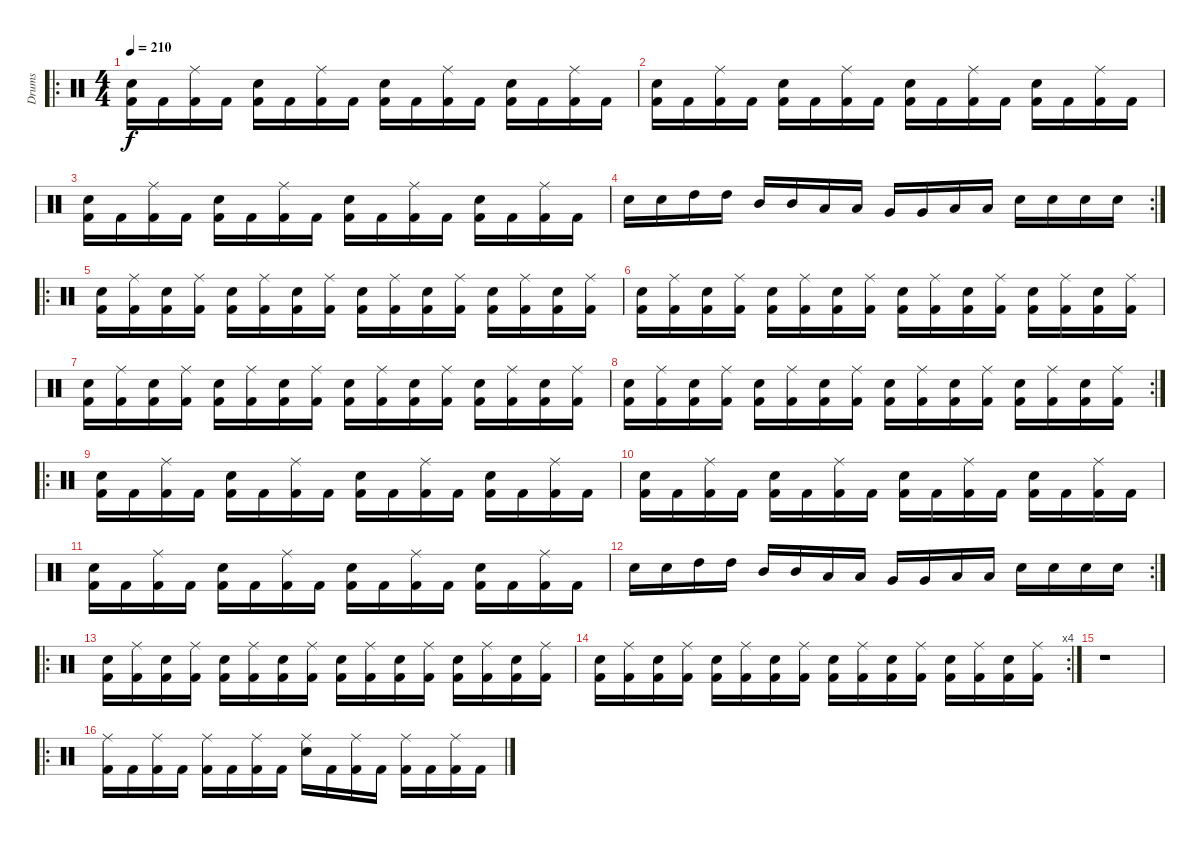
\track ("Drums" "Drums") {instrument percussion}
\staff {score}
\articulation defaults
\ro
\ts (4 4)
\tempo 210
\clef neutral
\ks c
("Electric Snare (hit)" "Kick (hit) 2").16{dy f} "Kick (hit) 2".16 ("Ride (middle)" "Kick (hit) 2").16 "Kick (hit) 2".16 ("Electric Snare (hit)" "Kick (hit) 2").16 "Kick (hit) 2".16 ("Ride (middle)" "Kick (hit) 2").16 "Kick (hit) 2".16 ("Electric Snare (hit)" "Kick (hit) 2").16 "Kick (hit) 2".16 ("Ride (middle)" "Kick (hit) 2").16 "Kick (hit) 2".16 ("Electric Snare (hit)" "Kick (hit) 2").16 "Kick (hit) 2".16 ("Ride (middle)" "Kick (hit) 2").16 "Kick (hit) 2".16 |
("Electric Snare (hit)" "Kick (hit) 2").16 "Kick (hit) 2".16 ("Ride (middle)" "Kick (hit) 2").16 "Kick (hit) 2".16 ("Electric Snare (hit)" "Kick (hit) 2").16 "Kick (hit) 2".16 ("Ride (middle)" "Kick (hit) 2").16 "Kick (hit) 2".16 ("Electric Snare (hit)" "Kick (hit) 2").16 "Kick (hit) 2".16 ("Ride (middle)" "Kick (hit) 2").16 "Kick (hit) 2".16 ("Electric Snare (hit)" "Kick (hit) 2").16 "Kick (hit) 2".16 ("Ride (middle)" "Kick (hit) 2").16 "Kick (hit) 2".16 |
("Electric Snare (hit)" "Kick (hit) 2").16 "Kick (hit) 2".16 ("Ride (middle)" "Kick (hit) 2").16 "Kick (hit) 2".16 ("Electric Snare (hit)" "Kick (hit) 2").16 "Kick (hit) 2".16 ("Ride (middle)" "Kick (hit) 2").16 "Kick (hit) 2".16 ("Electric Snare (hit)" "Kick (hit) 2").16 "Kick (hit) 2".16 ("Ride (middle)" "Kick (hit) 2").16 "Kick (hit) 2".16 ("Electric Snare (hit)" "Kick (hit) 2").16 "Kick (hit) 2".16 ("Ride (middle)" "Kick (hit) 2").16 "Kick (hit) 2".16 |
\rc 2 "Electric Snare (hit)".16 "Electric Snare (hit)".16 "High Tom (hit)".16 "High Tom (hit)".16 "Mid Tom (hit)".16 "Mid Tom (hit)".16 "Low Tom (hit)".16 "Low Tom (hit)".16 "Very Low Tom (hit)".16 "Very Low Tom (hit)".16 "Low Tom (hit)".16 "Low Tom (hit)".16 "Electric Snare (hit)".16 "Electric Snare (hit)".16 "Electric Snare (hit)".16 "Electric Snare (hit)".16
|
\ro
("Electric Snare (hit)" "Kick (hit) 2").16 ("Ride (middle)" "Kick (hit) 2").16 ("Electric Snare (hit)" "Kick (hit) 2").16 ("Ride (middle)" "Kick (hit) 2").16 ("Electric Snare (hit)" "Kick (hit) 2").16 ("Ride (middle)" "Kick (hit) 2").16 ("Electric Snare (hit)" "Kick (hit) 2").16 ("Ride (middle)" "Kick (hit) 2").16 ("Electric Snare (hit)" "Kick (hit) 2").16 ("Ride (middle)" "Kick (hit) 2").16 ("Electric Snare (hit)" "Kick (hit) 2").16 ("Ride (middle)" "Kick (hit) 2").16 ("Electric Snare (hit)" "Kick (hit) 2").16 ("Ride (middle)" "Kick (hit) 2").16 ("Electric Snare (hit)" "Kick (hit) 2").16 ("Ride (middle)" "Kick (hit) 2").16 |
("Electric Snare (hit)" "Kick (hit) 2").16 ("Ride (middle)" "Kick (hit) 2").16 ("Electric Snare (hit)" "Kick (hit) 2").16 ("Ride (middle)" "Kick (hit) 2").16 ("Electric Snare (hit)" "Kick (hit) 2").16 ("Ride (middle)" "Kick (hit) 2").16 ("Electric Snare (hit)" "Kick (hit) 2").16 ("Ride (middle)" "Kick (hit) 2").16 ("Electric Snare (hit)" "Kick (hit) 2").16 ("Ride (middle)" "Kick (hit) 2").16 ("Electric Snare (hit)" "Kick (hit) 2").16 ("Ride (middle)" "Kick (hit) 2").16 ("Electric Snare (hit)" "Kick (hit) 2").16 ("Ride (middle)" "Kick (hit) 2").16 ("Electric Snare (hit)" "Kick (hit) 2").16 ("Ride (middle)" "Kick (hit) 2").16 |
("Electric Snare (hit)" "Kick (hit) 2").16 ("Ride (middle)" "Kick (hit) 2").16 ("Electric Snare (hit)" "Kick (hit) 2").16 ("Ride (middle)" "Kick (hit) 2").16 ("Electric Snare (hit)" "Kick (hit) 2").16 ("Ride (middle)" "Kick (hit) 2").16 ("Electric Snare (hit)" "Kick (hit) 2").16 ("Ride (middle)" "Kick (hit) 2").16 ("Electric Snare (hit)" "Kick (hit) 2").16 ("Ride (middle)" "Kick (hit) 2").16 ("Electric Snare (hit)" "Kick (hit) 2").16 ("Ride (middle)" "Kick (hit) 2").16 ("Electric Snare (hit)" "Kick (hit) 2").16 ("Ride (middle)" "Kick (hit) 2").16 ("Electric Snare (hit)" "Kick (hit) 2").16 ("Ride (middle)" "Kick (hit) 2").16 |
\rc 2
("Electric Snare (hit)" "Kick (hit) 2").16 ("Ride (middle)" "Kick (hit) 2").16 ("Electric Snare (hit)" "Kick (hit) 2").16 ("Ride (middle)" "Kick (hit) 2").16 ("Electric Snare (hit)" "Kick (hit) 2").16 ("Ride (middle)" "Kick (hit) 2").16 ("Electric Snare (hit)" "Kick (hit) 2").16 ("Ride (middle)" "Kick (hit) 2").16 ("Electric Snare (hit)" "Kick (hit) 2").16 ("Ride (middle)" "Kick (hit) 2").16 ("Electric Snare (hit)" "Kick (hit) 2").16 ("Ride (middle)" "Kick (hit) 2").16 ("Electric Snare (hit)" "Kick (hit) 2").16 ("Ride (middle)" "Kick (hit) 2").16 ("Electric Snare (hit)" "Kick (hit) 2").16 ("Ride (middle)" "Kick (hit) 2").16 |
\ro
("Electric Snare (hit)" "Kick (hit) 2").16 "Kick (hit) 2".16 ("Ride (middle)" "Kick (hit) 2").16 "Kick (hit) 2".16 ("Electric Snare (hit)" "Kick (hit) 2").16 "Kick (hit) 2".16 ("Ride (middle)" "Kick (hit) 2").16 "Kick (hit) 2".16 ("Electric Snare (hit)" "Kick (hit) 2").16 "Kick (hit) 2".16 ("Ride (middle)" "Kick (hit) 2").16 "Kick (hit) 2".16 ("Electric Snare (hit)" "Kick (hit) 2").16 "Kick (hit) 2".16 ("Ride (middle)" "Kick (hit) 2").16 "Kick (hit) 2".16 |
("Electric Snare (hit)" "Kick (hit) 2").16 "Kick (hit) 2".16 ("Ride (middle)" "Kick (hit) 2").16 "Kick (hit) 2".16 ("Electric Snare (hit)" "Kick (hit) 2").16 "Kick (hit) 2".16 ("Ride (middle)" "Kick (hit) 2").16 "Kick (hit) 2".16 ("Electric Snare (hit)" "Kick (hit) 2").16 "Kick (hit) 2".16 ("Ride (middle)" "Kick (hit) 2").16 "Kick (hit) 2".16 ("Electric Snare (hit)" "Kick (hit) 2").16 "Kick (hit) 2".16 ("Ride (middle)" "Kick (hit) 2").16 "Kick (hit) 2".16 |
("Electric Snare (hit)" "Kick (hit) 2").16 "Kick (hit) 2".16 ("Ride (middle)" "Kick (hit) 2").16 "Kick (hit) 2".16 ("Electric Snare (hit)" "Kick (hit) 2").16 "Kick (hit) 2".16 ("Ride (middle)" "Kick (hit) 2").16 "Kick (hit) 2".16 ("Electric Snare (hit)" "Kick (hit) 2").16 "Kick (hit) 2".16 ("Ride (middle)" "Kick (hit) 2").16 "Kick (hit) 2".16 ("Electric Snare (hit)" "Kick (hit) 2").16 "Kick (hit) 2".16 ("Ride (middle)" "Kick (hit) 2").16 "Kick (hit) 2".16 |
\rc 2 "Electric Snare (hit)".16 "Electric Snare (hit)".16 "High Tom (hit)".16 "High Tom (hit)".16 "Mid Tom (hit)".16 "Mid Tom (hit)".16 "Low Tom (hit)".16 "Low Tom (hit)".16 "Very Low Tom (hit)".16 "Very Low Tom (hit)".16 "Low Tom (hit)".16 "Low Tom (hit)".16 "Electric Snare (hit)".16 "Electric Snare (hit)".16 "Electric Snare (hit)".16 "Electric Snare (hit)".16
|
\ro
("Electric Snare (hit)" "Kick (hit) 2").16 ("Ride (middle)" "Kick (hit) 2").16 ("Electric Snare (hit)" "Kick (hit) 2").16 ("Ride (middle)" "Kick (hit) 2").16 ("Electric Snare (hit)" "Kick (hit) 2").16 ("Ride (middle)" "Kick (hit) 2").16 ("Electric Snare (hit)" "Kick (hit) 2").16 ("Ride (middle)" "Kick (hit) 2").16 ("Electric Snare (hit)" "Kick (hit) 2").16 ("Ride (middle)" "Kick (hit) 2").16 ("Electric Snare (hit)" "Kick (hit) 2").16 ("Ride (middle)" "Kick (hit) 2").16 ("Electric Snare (hit)" "Kick (hit) 2").16 ("Ride (middle)" "Kick (hit) 2").16 ("Electric Snare (hit)" "Kick (hit) 2").16 ("Ride (middle)" "Kick (hit) 2").16 |
\rc 4
("Electric Snare (hit)" "Kick (hit) 2").16 ("Ride (middle)" "Kick (hit) 2").16 ("Electric Snare (hit)" "Kick (hit) 2").16 ("Ride (middle)" "Kick (hit) 2").16 ("Electric Snare (hit)" "Kick (hit) 2").16 ("Ride (middle)" "Kick (hit) 2").16 ("Electric Snare (hit)" "Kick (hit) 2").16 ("Ride (middle)" "Kick (hit) 2").16 ("Electric Snare (hit)" "Kick (hit) 2").16 ("Ride (middle)" "Kick (hit) 2").16 ("Electric Snare (hit)" "Kick (hit) 2").16 ("Ride (middle)" "Kick (hit) 2").16 ("Electric Snare (hit)" "Kick (hit) 2").16 ("Ride (middle)" "Kick (hit) 2").16 ("Electric Snare (hit)" "Kick (hit) 2").16 ("Ride (middle)" "Kick (hit) 2").16 |
r.1 |
\ro
("Ride (middle)" "Kick (hit) 2").16 "Kick (hit) 2".16 ("Ride (middle)" "Kick (hit) 2").16 "Kick (hit) 2".16 ("Ride (middle)" "Kick (hit) 2").16 "Kick (hit) 2".16 ("Ride (middle)" "Kick (hit) 2").16 "Kick (hit) 2".16 ("Ride (middle)" "Electric Snare (hit)").16 "Kick (hit) 2".16 ("Ride (middle)" "Kick (hit) 2").16 "Kick (hit) 2".16 ("Ride (middle)" "Kick (hit) 2").16 "Kick (hit) 2".16 ("Ride (middle)" "Kick (hit) 2").16 "Kick (hit) 2".16
